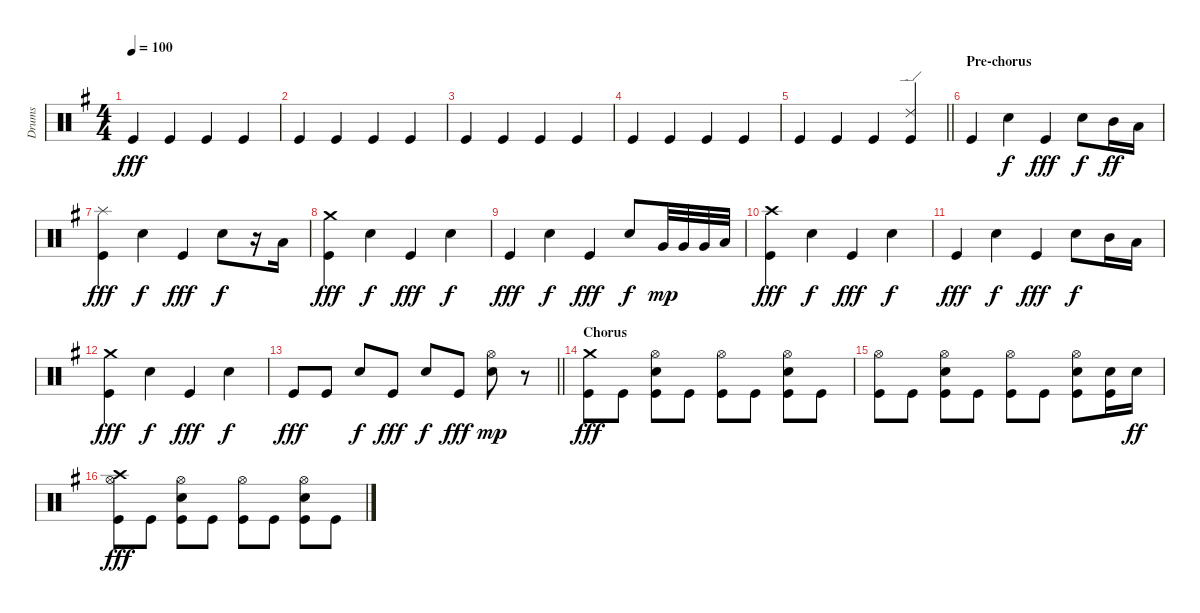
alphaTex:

\track ("Drums" "Drums") {instrument percussion}
\staff {score}
\articulation defaults
\ts (4 4)
\tempo 100
\clef neutral
\ks eminor "Kick (hit)".4{dy fff} "Kick (hit)".4 "Kick (hit)".4 "Kick (hit)".4
|
"Kick (hit)".4 "Kick (hit)".4 "Kick (hit)".4 "Kick (hit)".4 |
"Kick (hit)".4 "Kick (hit)".4 "Kick (hit)".4 "Kick (hit)".4 |
"Kick (hit)".4 "Kick (hit)".4 "Kick (hit)".4 "Kick (hit)".4 |
\barLineRight lightlight "Kick (hit)".4 "Kick (hit)".4 "Kick (hit)".4
("Ride (edge) 2" "Kick (hit)").4 |
\section ("" "Pre-chorus")
"Kick (hit)".4 "Snare (hit) 2".4{dy f} "Kick (hit)".4{dy fff} "Snare (hit) 2".8{dy f} "Mid Tom (hit)".16{dy ff} "Low Tom (hit)".16 |
("Splash (hit)" "Kick (hit)").4{dy fff} "Snare (hit) 2".4{dy f} "Kick (hit)".4{dy fff} "Snare (hit) 2".8{dy f} r.16 "Low Tom (hit)".16 |
("Crash medium (hit)" "Kick (hit)").4{dy fff} "Snare (hit) 2".4{dy f} "Kick (hit)".4{dy fff} "Snare (hit) 2".4{dy f} |
"Kick (hit)".4{dy fff} "Snare (hit) 2".4{dy f} "Kick (hit)".4{dy fff} "Snare (hit) 2".8{dy f} "Very Low Tom (hit)".32{dy mp} "Very Low Tom (hit)".32 "Very Low Tom (hit)".32 "Low Floor Tom (hit)".32 |
("Crash high (hit)" "Kick (hit)").4{dy fff} "Snare (hit) 2".4{dy f} "Kick (hit)".4{dy fff} "Snare (hit) 2".4{dy f} |
"Kick (hit)".4{dy fff} "Snare (hit) 2".4{dy f} "Kick (hit)".4{dy fff} "Snare (hit) 2".8{dy f} "Mid Tom (hit)".16 "Low Tom (hit)".16 |
("Crash medium (hit)" "Kick (hit)").4{dy fff} "Snare (hit) 2".4{dy f} "Kick (hit)".4{dy fff} "Snare (hit) 2".4{dy f} |
\barLineRight lightlight "Kick (hit)".8{dy fff} "Kick (hit)".8 "Snare (hit) 2".8{dy f} "Kick (hit)".8{dy fff} "Snare (hit) 2".8{dy f} "Kick (hit)".8{dy fff}
("Hi-Hat (open)" "Snare (hit) 2").8{dy mp} r.8 |
\section ("" "Chorus")
("Crash medium (hit)" "Kick (hit)").8{dy fff} "Kick (hit)".8 ("Hi-Hat (open)" "Snare (hit) 2" "Kick (hit)").8 "Kick (hit)".8 ("Hi-Hat (open)" "Kick (hit)").8 "Kick (hit)".8 ("Hi-Hat (open)" "Snare (hit) 2" "Kick (hit)").8 "Kick (hit)".8 |
("Hi-Hat (open)" "Kick (hit)").8 "Kick (hit)".8 ("Hi-Hat (open)" "Snare (hit) 2" "Kick (hit)").8 "Kick (hit)".8 ("Hi-Hat (open)" "Kick (hit)").8 "Kick (hit)".8 ("Hi-Hat (open)" "Snare (hit) 2" "Kick (hit)").8 ("Snare (hit) 2" "Kick (hit)").16 "Snare (hit) 2".16{dy ff} |
("Crash high (hit)" "Hi-Hat (open)" "Kick (hit)").8{dy fff} "Kick (hit)".8 ("Hi-Hat (open)" "Snare (hit) 2" "Kick (hit)").8 "Kick (hit)".8 ("Hi-Hat (open)" "Kick (hit)").8 "Kick (hit)".8 ("Hi-Hat (open)" "Snare (hit) 2" "Kick (hit)").8 "Kick (hit)".8
